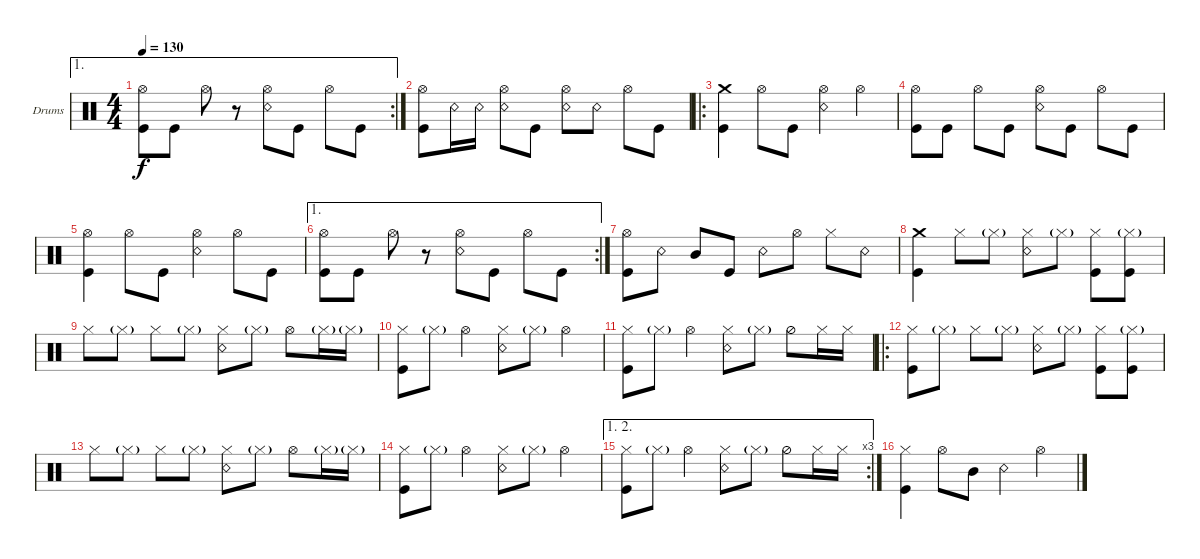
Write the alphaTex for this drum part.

\defaultSystemsLayout 4
\bracketExtendMode groupsimilarinstruments
\firstSystemTrackNameOrientation horizontal
\otherSystemsTrackNameOrientation horizontal
\track ("Drumkit" "Drums") {instrument percussion}
\staff {score}
\articulation defaults
\ae 1
\rc 2
\ts (4 4)
\tempo 130
\clef neutral
\scale
0.333333
\ks c
("Kick (hit)" "Hi-Hat (open)").8{dy f} "Kick (hit)".8 "Hi-Hat (open)".8 r.8 ("Snare (rim shot)" "Hi-Hat (open)").8 "Kick (hit)".8 "Hi-Hat (open)".8 "Kick (hit)".8 |
("Kick (hit)" "Hi-Hat (open)").8 "Snare (rim shot)".16 "Snare (rim shot)".16 ("Snare (rim shot)" "Hi-Hat (open)").8 "Kick (hit)".8 ("Snare (rim shot)" "Hi-Hat (open)").8 "Snare (rim shot)".8 "Hi-Hat (open)".8 "Kick (hit)".8 |
\ro
("Kick (hit)" "Crash medium (hit)").4 "Hi-Hat (open)".8 "Kick (hit)".8 ("Snare (rim shot)" "Hi-Hat (open)").4 "Hi-Hat (open)".4 |
("Kick (hit)" "Hi-Hat (open)").8 "Kick (hit)".8 "Hi-Hat (open)".8 "Kick (hit)".8 ("Snare (rim shot)" "Hi-Hat (open)").8 "Kick (hit)".8 "Hi-Hat (open)".8 "Kick (hit)".8 |
("Kick (hit)" "Hi-Hat (open)").4 "Hi-Hat (open)".8 "Kick (hit)".8 ("Snare (rim shot)" "Hi-Hat (open)").4 "Hi-Hat (open)".8 "Kick (hit)".8 |
\ae 1
\rc 2
("Kick (hit)" "Hi-Hat (open)").8 "Kick (hit)".8 "Hi-Hat (open)".8 r.8 ("Snare (rim shot)" "Hi-Hat (open)").8 "Kick (hit)".8 "Hi-Hat (open)".8 "Kick (hit)".8 |
("Kick (hit)" "Hi-Hat (open)").8 "Snare (rim shot)".8 "Mid Tom (hit)".8 "Kick (hit)".8 "Snare (rim shot)".8 "Hi-Hat (open)".8 "Hi-Hat (closed)".8 "Snare (rim shot)".8 |
\scale
0.365079 ("Kick (hit)" "Crash medium (hit)").4 "Hi-Hat (closed)".8 "Hi-Hat (closed)"{g}.8 ("Snare (rim shot)" "Hi-Hat (closed)").8 "Hi-Hat (closed)"{g}.8 ("Hi-Hat (closed)" "Kick (hit)").8 ("Hi-Hat (closed)"{g} "Kick (hit)").8 |
\scale
0.301587 "Hi-Hat (closed)".8 "Hi-Hat (closed)"{g}.8 "Hi-Hat (closed)".8 "Hi-Hat (closed)"{g}.8 ("Hi-Hat (closed)" "Snare (rim shot)").8 "Hi-Hat (closed)"{g}.8 "Hi-Hat (open)".8 "Hi-Hat (closed)"{g}.16 "Hi-Hat (closed)"{g}.16 |
\scale
0.322034 ("Kick (hit)" "Hi-Hat (closed)").8 "Hi-Hat (closed)"{g}.8 "Hi-Hat (open)".4 ("Hi-Hat (closed)" "Snare (rim shot)").8 "Hi-Hat (closed)"{g}.8 "Hi-Hat (open)".4 |
\scale
0.355932 ("Kick (hit)" "Hi-Hat (closed)").8 "Hi-Hat (closed)"{g}.8 "Hi-Hat (open)".4 ("Hi-Hat (closed)" "Snare (rim shot)").8 "Hi-Hat (closed)"{g}.8 "Hi-Hat (half)".8 "Hi-Hat (closed)".16 "Hi-Hat (closed)".16 |
\ro
("Hi-Hat (closed)" "Kick (hit)").8 "Hi-Hat (closed)"{g}.8 "Hi-Hat (closed)".8 "Hi-Hat (closed)"{g}.8 ("Snare (rim shot)" "Hi-Hat (closed)").8 "Hi-Hat (closed)"{g}.8 ("Hi-Hat (closed)" "Kick (hit)").8 ("Hi-Hat (closed)"{g} "Kick (hit)").8 |
"Hi-Hat (closed)".8 "Hi-Hat (closed)"{g}.8 "Hi-Hat (closed)".8 "Hi-Hat (closed)"{g}.8 ("Hi-Hat (closed)" "Snare (rim shot)").8 "Hi-Hat (closed)"{g}.8 "Hi-Hat (open)".8 "Hi-Hat (closed)"{g}.16 "Hi-Hat (closed)"{g}.16 |
("Kick (hit)" "Hi-Hat (closed)").8 "Hi-Hat (closed)"{g}.8 "Hi-Hat (open)".4 ("Hi-Hat (closed)" "Snare (rim shot)").8 "Hi-Hat (closed)"{g}.8 "Hi-Hat (open)".4 |
\ae (1 2)
\rc 3
("Kick (hit)" "Hi-Hat (closed)").8 "Hi-Hat (closed)"{g}.8 "Hi-Hat (open)".4 ("Hi-Hat (closed)" "Snare (rim shot)").8 "Hi-Hat (closed)"{g}.8 "Hi-Hat (half)".8 "Hi-Hat (closed)".16 "Hi-Hat (closed)".16 |
\scale
0.322034 ("Kick (hit)" "Hi-Hat (closed)").4 "Hi-Hat (open)".8 "Mid Tom (hit)".8 "Snare (rim shot)".4 "Hi-Hat (open)".4
